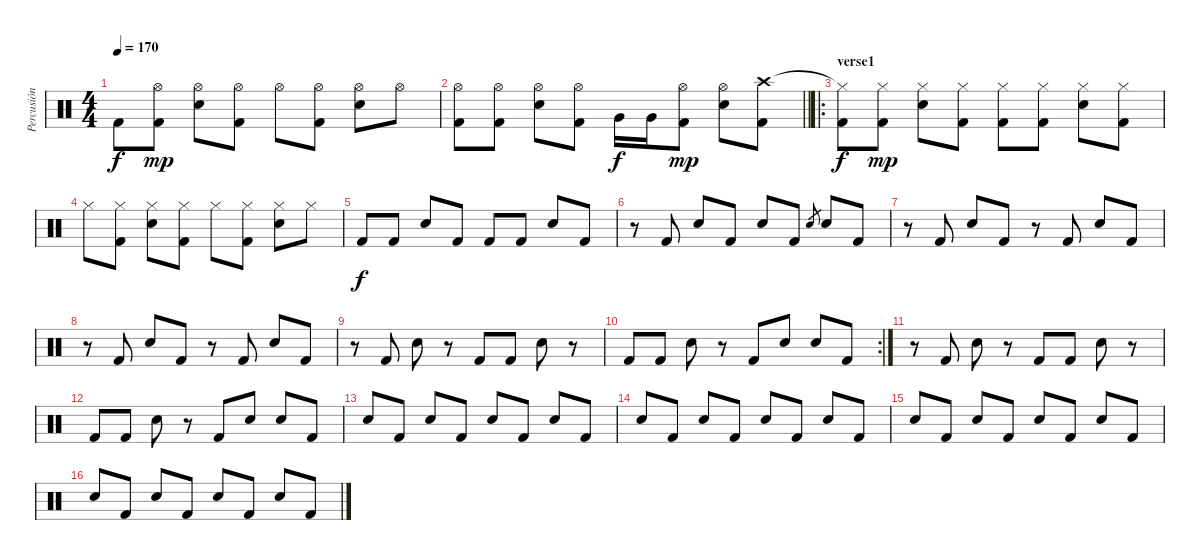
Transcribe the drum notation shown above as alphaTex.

\track ("Percusión" "Percusión") {instrument percussion}
\staff {score}
\articulation defaults
\ts (4 4)
\tempo 170
\clef neutral
\ks c "Kick (hit) 2".8{dy f}
("Hi-Hat (open)" "Kick (hit) 2").8{dy mp} ("Hi-Hat (open)" "Electric Snare (hit)").8 ("Hi-Hat (open)" "Kick (hit) 2").8 "Hi-Hat (open)".8 ("Hi-Hat (open)" "Kick (hit) 2").8 ("Hi-Hat (open)" "Electric Snare (hit)").8 "Hi-Hat (open)".8 |
\barLineRight lightlight
("Hi-Hat (open)" "Kick (hit) 2").8 ("Hi-Hat (open)" "Kick (hit) 2").8 ("Hi-Hat (open)" "Electric Snare (hit)").8 ("Hi-Hat (open)" "Kick (hit) 2").8 "Very Low Tom (hit)".16{dy f} "Very Low Tom (hit)".16 ("Hi-Hat (open)" "Kick (hit) 2").8{dy mp} ("Hi-Hat (open)" "Electric Snare (hit)").8 ("Crash high (hit)" "Kick (hit) 2").8 |
\ro
\section ("" "verse1")
("Hi-Hat (closed)"{t} "Kick (hit) 2").8{dy f} ("Hi-Hat (closed)" "Kick (hit) 2").8{dy mp} ("Hi-Hat (closed)" "Electric Snare (hit)").8 ("Hi-Hat (closed)" "Kick (hit) 2").8 ("Hi-Hat (closed)" "Kick (hit) 2").8 ("Hi-Hat (closed)" "Kick (hit) 2").8 ("Hi-Hat (closed)" "Electric Snare (hit)").8 ("Hi-Hat (closed)" "Kick (hit) 2").8 |
"Hi-Hat (closed)".8 ("Hi-Hat (closed)" "Kick (hit) 2").8 ("Hi-Hat (closed)" "Electric Snare (hit)").8 ("Hi-Hat (closed)" "Kick (hit) 2").8 "Hi-Hat (closed)".8 ("Hi-Hat (closed)" "Kick (hit) 2").8 ("Hi-Hat (closed)" "Electric Snare (hit)").8 "Hi-Hat (closed)".8 |
"Kick (hit) 2".8{dy f} "Kick (hit) 2".8 "Electric Snare (hit)".8 "Kick (hit) 2".8 "Kick (hit) 2".8 "Kick (hit) 2".8 "Electric Snare (hit)".8 "Kick (hit) 2".8 |
r.8 "Kick (hit) 2".8 "Electric Snare (hit)".8 "Kick (hit) 2".8 "Electric Snare (hit)".8 "Kick (hit) 2".8 "Electric Snare (hit)".8{gr} "Electric Snare (hit)".8 "Kick (hit) 2".8 |
r.8 "Kick (hit) 2".8 "Electric Snare (hit)".8 "Kick (hit) 2".8 r.8 "Kick (hit) 2".8 "Electric Snare (hit)".8 "Kick (hit) 2".8 |
r.8 "Kick (hit) 2".8 "Electric Snare (hit)".8 "Kick (hit) 2".8 r.8 "Kick (hit) 2".8 "Electric Snare (hit)".8 "Kick (hit) 2".8 |
r.8 "Kick (hit) 2".8 "Electric Snare (hit)".8 r.8 "Kick (hit) 2".8 "Kick (hit) 2".8 "Electric Snare (hit)".8 r.8 |
\rc 2 "Kick (hit) 2".8 "Kick (hit) 2".8 "Electric Snare (hit)".8
r.8 "Kick (hit) 2".8 "Electric Snare (hit)".8 "Electric Snare (hit)".8 "Kick (hit) 2".8 |
r.8 "Kick (hit) 2".8 "Electric Snare (hit)".8 r.8 "Kick (hit) 2".8 "Kick (hit) 2".8 "Electric Snare (hit)".8 r.8 |
"Kick (hit) 2".8 "Kick (hit) 2".8 "Electric Snare (hit)".8 r.8 "Kick (hit) 2".8 "Electric Snare (hit)".8 "Electric Snare (hit)".8 "Kick (hit) 2".8 |
"Electric Snare (hit)".8 "Kick (hit) 2".8 "Electric Snare (hit)".8 "Kick (hit) 2".8 "Electric Snare (hit)".8 "Kick (hit) 2".8 "Electric Snare (hit)".8 "Kick (hit) 2".8 |
"Electric Snare (hit)".8 "Kick (hit) 2".8 "Electric Snare (hit)".8 "Kick (hit) 2".8 "Electric Snare (hit)".8 "Kick (hit) 2".8 "Electric Snare (hit)".8 "Kick (hit) 2".8 |
"Electric Snare (hit)".8 "Kick (hit) 2".8 "Electric Snare (hit)".8 "Kick (hit) 2".8 "Electric Snare (hit)".8 "Kick (hit) 2".8 "Electric Snare (hit)".8 "Kick (hit) 2".8 |
"Electric Snare (hit)".8 "Kick (hit) 2".8 "Electric Snare (hit)".8 "Kick (hit) 2".8 "Electric Snare (hit)".8 "Kick (hit) 2".8 "Electric Snare (hit)".8 "Kick (hit) 2".8
